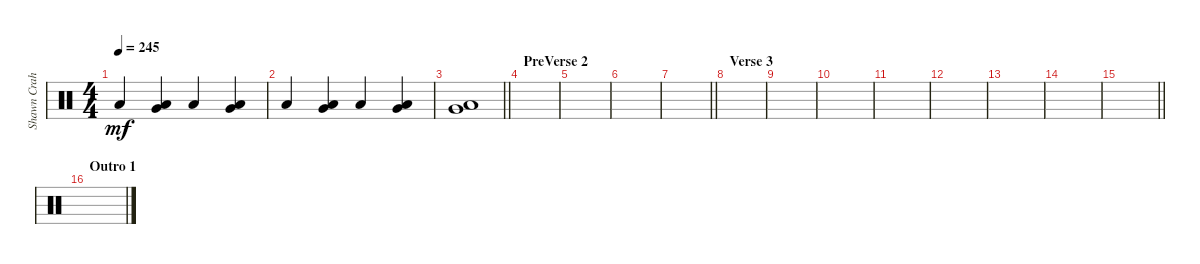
\track ("Shawn Crahan" "Shawn Crah") {instrument percussion}
\staff {score}
\articulation defaults
\ts (4 4)
\tempo 245
\clef neutral
\ks c "Low Floor Tom (hit)".4{dy mf}
("Very Low Tom (hit)" "Low Floor Tom (hit)").4 "Low Floor Tom (hit)".4 ("Very Low Tom (hit)" "Low Floor Tom (hit)").4 |
"Low Floor Tom (hit)".4 ("Very Low Tom (hit)" "Low Floor Tom (hit)").4 "Low Floor Tom (hit)".4 ("Very Low Tom (hit)" "Low Floor Tom (hit)").4 |
\barLineRight lightlight
("Very Low Tom (hit)" "Low Floor Tom (hit)").1 |
\section ("" "PreVerse 2")
|
|
|
\barLineRight lightlight
|
\section ("" "Verse 3")
|
|
|
|
|
|
|
\barLineRight lightlight
|
\section ("" "Outro 1")
